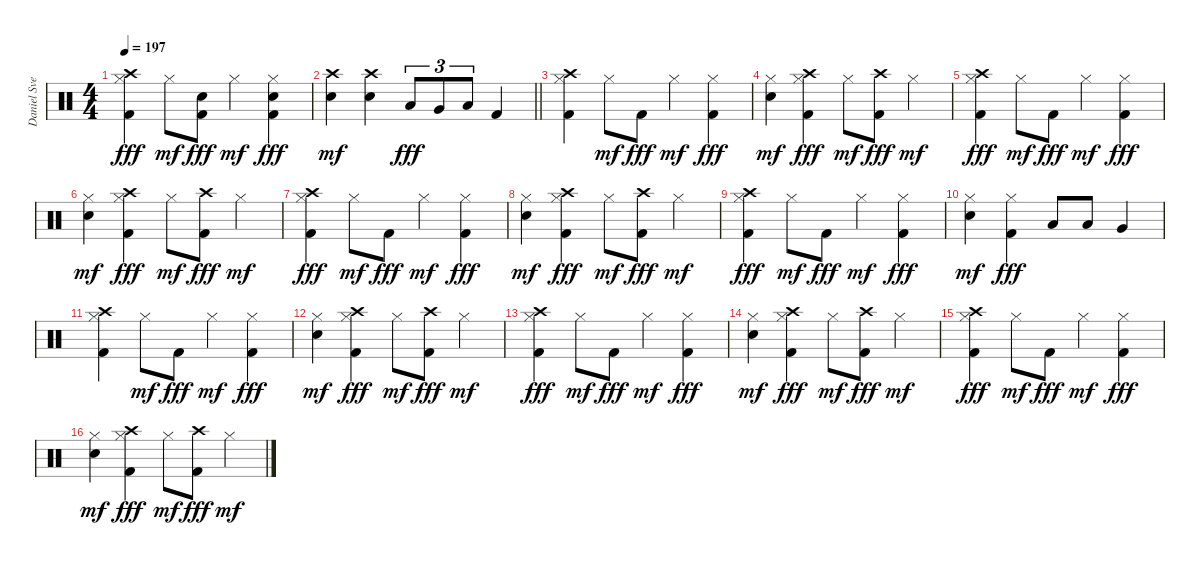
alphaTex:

\track ("Daniel Svensson" "Daniel Sve") {instrument percussion}
\staff {score}
\articulation defaults
\ts (4 4)
\tempo 197
\clef neutral
\ks c
("Crash high (hit)" "Hi-Hat (closed)" "Kick (hit) 2").4{dy fff} "Hi-Hat (closed)".8{dy mf} ("Electric Snare (hit)" "Kick (hit) 2").8{dy fff} "Hi-Hat (closed)".4{dy mf} ("Hi-Hat (closed)" "Electric Snare (hit)" "Kick (hit) 2").4{dy fff} |
\barLineRight lightlight
("Crash high (hit)" "Electric Snare (hit)").4{dy mf} ("Crash high (hit)" "Electric Snare (hit)").4 "Low Tom (hit)".8{tu (3 2) dy fff} "Very Low Tom (hit)".8{tu (3 2)} "Low Floor Tom (hit)".8{tu (3 2)} "Kick (hit) 2".4 |
("Crash high (hit)" "Hi-Hat (closed)" "Kick (hit) 2").4 "Hi-Hat (closed)".8{dy mf} "Kick (hit) 2".8{dy fff} "Hi-Hat (closed)".4{dy mf} ("Hi-Hat (closed)" "Kick (hit) 2").4{dy fff} |
("Hi-Hat (closed)" "Electric Snare (hit)").4{dy mf} ("Crash high (hit)" "Hi-Hat (closed)" "Kick (hit) 2").4{dy fff} "Hi-Hat (closed)".8{dy mf} ("Crash high (hit)" "Kick (hit) 2").8{dy fff} "Hi-Hat (closed)".4{dy mf} |
("Crash high (hit)" "Hi-Hat (closed)" "Kick (hit) 2").4{dy fff} "Hi-Hat (closed)".8{dy mf} "Kick (hit) 2".8{dy fff} "Hi-Hat (closed)".4{dy mf} ("Hi-Hat (closed)" "Kick (hit) 2").4{dy fff} |
("Hi-Hat (closed)" "Electric Snare (hit)").4{dy mf} ("Crash high (hit)" "Hi-Hat (closed)" "Kick (hit) 2").4{dy fff} "Hi-Hat (closed)".8{dy mf} ("Crash high (hit)" "Kick (hit) 2").8{dy fff} "Hi-Hat (closed)".4{dy mf} |
("Crash high (hit)" "Hi-Hat (closed)" "Kick (hit) 2").4{dy fff} "Hi-Hat (closed)".8{dy mf} "Kick (hit) 2".8{dy fff} "Hi-Hat (closed)".4{dy mf} ("Hi-Hat (closed)" "Kick (hit) 2").4{dy fff} |
("Hi-Hat (closed)" "Electric Snare (hit)").4{dy mf} ("Crash high (hit)" "Hi-Hat (closed)" "Kick (hit) 2").4{dy fff} "Hi-Hat (closed)".8{dy mf} ("Crash high (hit)" "Kick (hit) 2").8{dy fff} "Hi-Hat (closed)".4{dy mf} |
("Crash high (hit)" "Hi-Hat (closed)" "Kick (hit) 2").4{dy fff} "Hi-Hat (closed)".8{dy mf} "Kick (hit) 2".8{dy fff} "Hi-Hat (closed)".4{dy mf} ("Hi-Hat (closed)" "Kick (hit) 2").4{dy fff} |
("Hi-Hat (closed)" "Electric Snare (hit)").4{dy mf} ("Hi-Hat (closed)" "Kick (hit) 2").4{dy fff} "Low Tom (hit)".8 "Low Tom (hit)".8 "Very Low Tom (hit)".4 |
("Crash high (hit)" "Hi-Hat (closed)" "Kick (hit) 2").4 "Hi-Hat (closed)".8{dy mf} "Kick (hit) 2".8{dy fff} "Hi-Hat (closed)".4{dy mf} ("Hi-Hat (closed)" "Kick (hit) 2").4{dy fff} |
("Hi-Hat (closed)" "Electric Snare (hit)").4{dy mf} ("Crash high (hit)" "Hi-Hat (closed)" "Kick (hit) 2").4{dy fff} "Hi-Hat (closed)".8{dy mf} ("Crash high (hit)" "Kick (hit) 2").8{dy fff} "Hi-Hat (closed)".4{dy mf} |
("Crash high (hit)" "Hi-Hat (closed)" "Kick (hit) 2").4{dy fff} "Hi-Hat (closed)".8{dy mf} "Kick (hit) 2".8{dy fff} "Hi-Hat (closed)".4{dy mf} ("Hi-Hat (closed)" "Kick (hit) 2").4{dy fff} |
("Hi-Hat (closed)" "Electric Snare (hit)").4{dy mf} ("Crash high (hit)" "Hi-Hat (closed)" "Kick (hit) 2").4{dy fff} "Hi-Hat (closed)".8{dy mf} ("Crash high (hit)" "Kick (hit) 2").8{dy fff} "Hi-Hat (closed)".4{dy mf} |
("Crash high (hit)" "Hi-Hat (closed)" "Kick (hit) 2").4{dy fff} "Hi-Hat (closed)".8{dy mf} "Kick (hit) 2".8{dy fff} "Hi-Hat (closed)".4{dy mf} ("Hi-Hat (closed)" "Kick (hit) 2").4{dy fff} |
("Hi-Hat (closed)" "Electric Snare (hit)").4{dy mf} ("Crash high (hit)" "Hi-Hat (closed)" "Kick (hit) 2").4{dy fff} "Hi-Hat (closed)".8{dy mf} ("Crash high (hit)" "Kick (hit) 2").8{dy fff} "Hi-Hat (closed)".4{dy mf}
